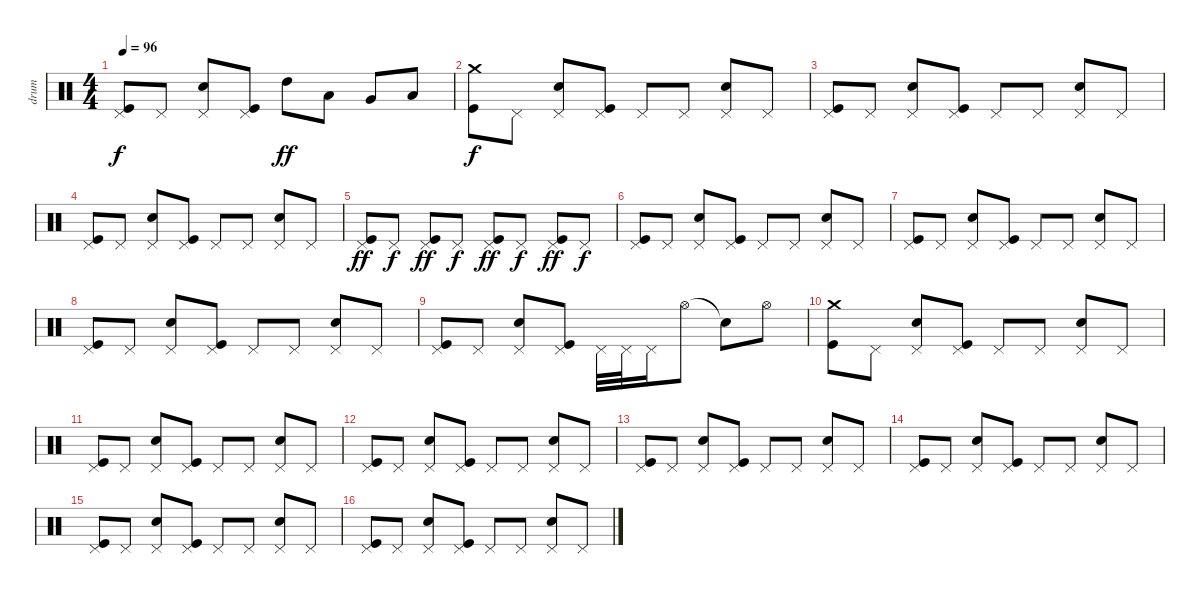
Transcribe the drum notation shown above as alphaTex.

\track ("drum" "drum") {instrument percussion}
\staff {score}
\articulation defaults
\ts (4 4)
\tempo 96
\clef neutral
\ks c
("Pedal Hi-Hat (hit)" "Kick (hit)").8{dy f} "Pedal Hi-Hat (hit)".8 ("Pedal Hi-Hat (hit)" "Electric Snare (hit)").8 ("Pedal Hi-Hat (hit)" "Kick (hit)").8 "High Tom (hit)".8{dy ff} "Low Tom (hit)".8 "Very Low Tom (hit)".8 "Low Floor Tom (hit)".8 |
("Crash medium (hit)" "Kick (hit)").8{dy f} "Pedal Hi-Hat (hit)".8 ("Pedal Hi-Hat (hit)" "Electric Snare (hit)").8 ("Pedal Hi-Hat (hit)" "Kick (hit)").8 "Pedal Hi-Hat (hit)".8 "Pedal Hi-Hat (hit)".8 ("Pedal Hi-Hat (hit)" "Electric Snare (hit)").8 "Pedal Hi-Hat (hit)".8 |
("Pedal Hi-Hat (hit)" "Kick (hit)").8 "Pedal Hi-Hat (hit)".8 ("Pedal Hi-Hat (hit)" "Electric Snare (hit)").8 ("Pedal Hi-Hat (hit)" "Kick (hit)").8 "Pedal Hi-Hat (hit)".8 "Pedal Hi-Hat (hit)".8 ("Pedal Hi-Hat (hit)" "Electric Snare (hit)").8 "Pedal Hi-Hat (hit)".8 |
("Pedal Hi-Hat (hit)" "Kick (hit)").8 "Pedal Hi-Hat (hit)".8 ("Pedal Hi-Hat (hit)" "Electric Snare (hit)").8 ("Pedal Hi-Hat (hit)" "Kick (hit)").8 "Pedal Hi-Hat (hit)".8 "Pedal Hi-Hat (hit)".8 ("Pedal Hi-Hat (hit)" "Electric Snare (hit)").8 "Pedal Hi-Hat (hit)".8 |
("Pedal Hi-Hat (hit)" "Kick (hit)").8{dy ff} "Pedal Hi-Hat (hit)".8{dy f} ("Pedal Hi-Hat (hit)" "Kick (hit)").8{dy ff} "Pedal Hi-Hat (hit)".8{dy f} ("Pedal Hi-Hat (hit)" "Kick (hit)").8{dy ff} "Pedal Hi-Hat (hit)".8{dy f} ("Pedal Hi-Hat (hit)" "Kick (hit)").8{dy ff} "Pedal Hi-Hat (hit)".8{dy f} |
("Pedal Hi-Hat (hit)" "Kick (hit)").8 "Pedal Hi-Hat (hit)".8 ("Pedal Hi-Hat (hit)" "Electric Snare (hit)").8 ("Pedal Hi-Hat (hit)" "Kick (hit)").8 "Pedal Hi-Hat (hit)".8 "Pedal Hi-Hat (hit)".8 ("Pedal Hi-Hat (hit)" "Electric Snare (hit)").8 "Pedal Hi-Hat (hit)".8 |
("Pedal Hi-Hat (hit)" "Kick (hit)").8 "Pedal Hi-Hat (hit)".8 ("Pedal Hi-Hat (hit)" "Electric Snare (hit)").8 ("Pedal Hi-Hat (hit)" "Kick (hit)").8 "Pedal Hi-Hat (hit)".8 "Pedal Hi-Hat (hit)".8 ("Pedal Hi-Hat (hit)" "Electric Snare (hit)").8 "Pedal Hi-Hat (hit)".8 |
("Pedal Hi-Hat (hit)" "Kick (hit)").8 "Pedal Hi-Hat (hit)".8 ("Pedal Hi-Hat (hit)" "Electric Snare (hit)").8 ("Pedal Hi-Hat (hit)" "Kick (hit)").8 "Pedal Hi-Hat (hit)".8 "Pedal Hi-Hat (hit)".8 ("Pedal Hi-Hat (hit)" "Electric Snare (hit)").8 "Pedal Hi-Hat (hit)".8 |
("Pedal Hi-Hat (hit)" "Kick (hit)").8 "Pedal Hi-Hat (hit)".8 ("Pedal Hi-Hat (hit)" "Electric Snare (hit)").8 ("Pedal Hi-Hat (hit)" "Kick (hit)").8 "Pedal Hi-Hat (hit)".32 "Pedal Hi-Hat (hit)".32 "Pedal Hi-Hat (hit)".16 "Hi-Hat (open)".8 "Electric Snare (hit)"{t}.8 "Hi-Hat (open)".8 |
("Crash medium (hit)" "Kick (hit)").8 "Pedal Hi-Hat (hit)".8 ("Pedal Hi-Hat (hit)" "Electric Snare (hit)").8 ("Pedal Hi-Hat (hit)" "Kick (hit)").8 "Pedal Hi-Hat (hit)".8 "Pedal Hi-Hat (hit)".8 ("Pedal Hi-Hat (hit)" "Electric Snare (hit)").8 "Pedal Hi-Hat (hit)".8 |
("Pedal Hi-Hat (hit)" "Kick (hit)").8 "Pedal Hi-Hat (hit)".8 ("Pedal Hi-Hat (hit)" "Electric Snare (hit)").8 ("Pedal Hi-Hat (hit)" "Kick (hit)").8 "Pedal Hi-Hat (hit)".8 "Pedal Hi-Hat (hit)".8 ("Pedal Hi-Hat (hit)" "Electric Snare (hit)").8 "Pedal Hi-Hat (hit)".8 |
("Pedal Hi-Hat (hit)" "Kick (hit)").8 "Pedal Hi-Hat (hit)".8 ("Pedal Hi-Hat (hit)" "Electric Snare (hit)").8 ("Pedal Hi-Hat (hit)" "Kick (hit)").8 "Pedal Hi-Hat (hit)".8 "Pedal Hi-Hat (hit)".8 ("Pedal Hi-Hat (hit)" "Electric Snare (hit)").8 "Pedal Hi-Hat (hit)".8 |
("Pedal Hi-Hat (hit)" "Kick (hit)").8 "Pedal Hi-Hat (hit)".8 ("Pedal Hi-Hat (hit)" "Electric Snare (hit)").8 ("Pedal Hi-Hat (hit)" "Kick (hit)").8 "Pedal Hi-Hat (hit)".8 "Pedal Hi-Hat (hit)".8 ("Pedal Hi-Hat (hit)" "Electric Snare (hit)").8 "Pedal Hi-Hat (hit)".8 |
("Pedal Hi-Hat (hit)" "Kick (hit)").8 "Pedal Hi-Hat (hit)".8 ("Pedal Hi-Hat (hit)" "Electric Snare (hit)").8 ("Pedal Hi-Hat (hit)" "Kick (hit)").8 "Pedal Hi-Hat (hit)".8 "Pedal Hi-Hat (hit)".8 ("Pedal Hi-Hat (hit)" "Electric Snare (hit)").8 "Pedal Hi-Hat (hit)".8 |
("Pedal Hi-Hat (hit)" "Kick (hit)").8 "Pedal Hi-Hat (hit)".8 ("Pedal Hi-Hat (hit)" "Electric Snare (hit)").8 ("Pedal Hi-Hat (hit)" "Kick (hit)").8 "Pedal Hi-Hat (hit)".8 "Pedal Hi-Hat (hit)".8 ("Pedal Hi-Hat (hit)" "Electric Snare (hit)").8 "Pedal Hi-Hat (hit)".8 |
("Pedal Hi-Hat (hit)" "Kick (hit)").8 "Pedal Hi-Hat (hit)".8 ("Pedal Hi-Hat (hit)" "Electric Snare (hit)").8 ("Pedal Hi-Hat (hit)" "Kick (hit)").8 "Pedal Hi-Hat (hit)".8 "Pedal Hi-Hat (hit)".8 ("Pedal Hi-Hat (hit)" "Electric Snare (hit)").8 "Pedal Hi-Hat (hit)".8
